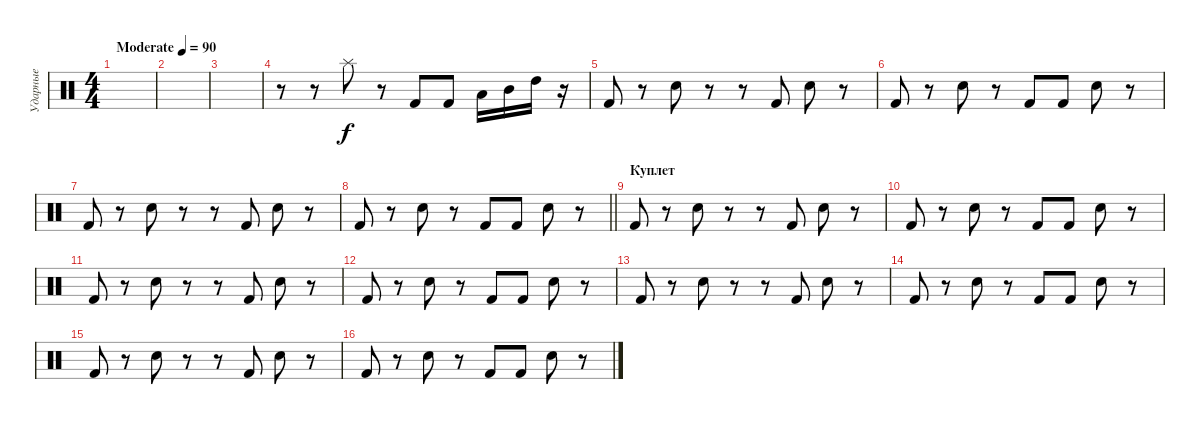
\track ("Ударные" "Ударные") {instrument percussion}
\staff {score}
\articulation defaults
\ts (4 4)
\tempo (90 "Moderate")
\clef neutral
\ks c
|
|
|
r.8 r.8 "Splash (hit)".8 r.8 "Kick (hit) 2".8 "Kick (hit) 2".8 "Low Tom (hit)".16 "Mid Tom (hit)".16 "High Tom (hit)".16 r.16 |
"Kick (hit) 2".8 r.8 "Snare (hit) 2".8 r.8 r.8 "Kick (hit) 2".8 "Snare (hit) 2".8 r.8 |
"Kick (hit) 2".8 r.8 "Snare (hit) 2".8 r.8 "Kick (hit) 2".8 "Kick (hit) 2".8 "Snare (hit) 2".8 r.8 |
"Kick (hit) 2".8 r.8 "Snare (hit) 2".8 r.8 r.8 "Kick (hit) 2".8 "Snare (hit) 2".8 r.8 |
\barLineRight lightlight "Kick (hit) 2".8
r.8 "Snare (hit) 2".8 r.8 "Kick (hit) 2".8 "Kick (hit) 2".8 "Snare (hit) 2".8 r.8 |
\section ("" "Куплет")
"Kick (hit) 2".8 r.8 "Snare (hit) 2".8 r.8 r.8 "Kick (hit) 2".8 "Snare (hit) 2".8 r.8 |
"Kick (hit) 2".8 r.8 "Snare (hit) 2".8 r.8 "Kick (hit) 2".8 "Kick (hit) 2".8 "Snare (hit) 2".8 r.8 |
"Kick (hit) 2".8 r.8 "Snare (hit) 2".8 r.8 r.8 "Kick (hit) 2".8 "Snare (hit) 2".8 r.8 |
"Kick (hit) 2".8 r.8 "Snare (hit) 2".8 r.8 "Kick (hit) 2".8 "Kick (hit) 2".8 "Snare (hit) 2".8 r.8 |
"Kick (hit) 2".8 r.8 "Snare (hit) 2".8 r.8 r.8 "Kick (hit) 2".8 "Snare (hit) 2".8 r.8 |
"Kick (hit) 2".8 r.8 "Snare (hit) 2".8 r.8 "Kick (hit) 2".8 "Kick (hit) 2".8 "Snare (hit) 2".8 r.8 |
"Kick (hit) 2".8 r.8 "Snare (hit) 2".8 r.8 r.8 "Kick (hit) 2".8 "Snare (hit) 2".8 r.8 |
"Kick (hit) 2".8 r.8 "Snare (hit) 2".8 r.8 "Kick (hit) 2".8 "Kick (hit) 2".8 "Snare (hit) 2".8 r.8
